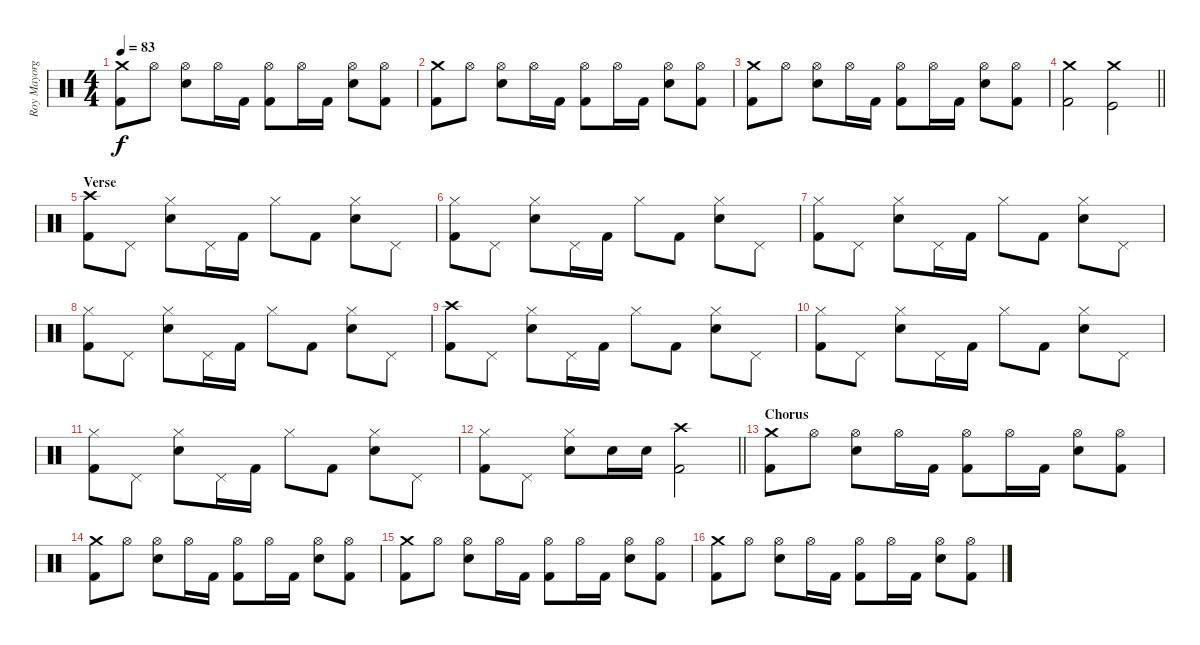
\track ("Roy Mayorga" "Roy Mayorg") {instrument percussion}
\staff {score}
\articulation defaults
\ts (4 4)
\tempo 83
\clef neutral
\ks c
("Crash medium (hit)" "Kick (hit) 2").8{dy f} "Hi-Hat (open)".8 ("Hi-Hat (open)" "Electric Snare (hit)").8 "Hi-Hat (open)".16 "Kick (hit) 2".16 ("Kick (hit) 2" "Hi-Hat (open)").8 "Hi-Hat (open)".16 "Kick (hit) 2".16 ("Electric Snare (hit)" "Hi-Hat (open)").8 ("Hi-Hat (open)" "Kick (hit) 2").8 |
("Crash medium (hit)" "Kick (hit) 2").8 "Hi-Hat (open)".8 ("Hi-Hat (open)" "Electric Snare (hit)").8 "Hi-Hat (open)".16 "Kick (hit) 2".16 ("Kick (hit) 2" "Hi-Hat (open)").8 "Hi-Hat (open)".16 "Kick (hit) 2".16 ("Electric Snare (hit)" "Hi-Hat (open)").8 ("Hi-Hat (open)" "Kick (hit) 2").8 |
("Crash medium (hit)" "Kick (hit) 2").8 "Hi-Hat (open)".8 ("Hi-Hat (open)" "Electric Snare (hit)").8 "Hi-Hat (open)".16 "Kick (hit) 2".16 ("Kick (hit) 2" "Hi-Hat (open)").8 "Hi-Hat (open)".16 "Kick (hit) 2".16 ("Electric Snare (hit)" "Hi-Hat (open)").8 ("Hi-Hat (open)" "Kick (hit) 2").8 |
\barLineRight lightlight
("Crash medium (hit)" "Kick (hit) 2").2 ("Crash medium (hit)" "Kick (hit)").2 |
\section ("" "Verse ")
("Crash high (hit)" "Kick (hit) 2").8 "Pedal Hi-Hat (hit)".8 ("Hi-Hat (closed)" "Electric Snare (hit)").8 "Pedal Hi-Hat (hit)".16 "Kick (hit) 2".16 "Hi-Hat (closed)".8 "Kick (hit) 2".8 ("Electric Snare (hit)" "Hi-Hat (closed)").8 "Pedal Hi-Hat (hit)".8 |
("Hi-Hat (closed)" "Kick (hit) 2").8 "Pedal Hi-Hat (hit)".8 ("Hi-Hat (closed)" "Electric Snare (hit)").8 "Pedal Hi-Hat (hit)".16 "Kick (hit) 2".16 "Hi-Hat (closed)".8 "Kick (hit) 2".8 ("Electric Snare (hit)" "Hi-Hat (closed)").8 "Pedal Hi-Hat (hit)".8 |
("Hi-Hat (closed)" "Kick (hit) 2").8 "Pedal Hi-Hat (hit)".8 ("Hi-Hat (closed)" "Electric Snare (hit)").8 "Pedal Hi-Hat (hit)".16 "Kick (hit) 2".16 "Hi-Hat (closed)".8 "Kick (hit) 2".8 ("Electric Snare (hit)" "Hi-Hat (closed)").8 "Pedal Hi-Hat (hit)".8 |
("Hi-Hat (closed)" "Kick (hit) 2").8 "Pedal Hi-Hat (hit)".8 ("Hi-Hat (closed)" "Electric Snare (hit)").8 "Pedal Hi-Hat (hit)".16 "Kick (hit) 2".16 "Hi-Hat (closed)".8 "Kick (hit) 2".8 ("Electric Snare (hit)" "Hi-Hat (closed)").8 "Pedal Hi-Hat (hit)".8 |
("Crash high (hit)" "Kick (hit) 2").8 "Pedal Hi-Hat (hit)".8 ("Hi-Hat (closed)" "Electric Snare (hit)").8 "Pedal Hi-Hat (hit)".16 "Kick (hit) 2".16 "Hi-Hat (closed)".8 "Kick (hit) 2".8 ("Electric Snare (hit)" "Hi-Hat (closed)").8 "Pedal Hi-Hat (hit)".8 |
("Hi-Hat (closed)" "Kick (hit) 2").8 "Pedal Hi-Hat (hit)".8 ("Hi-Hat (closed)" "Electric Snare (hit)").8 "Pedal Hi-Hat (hit)".16 "Kick (hit) 2".16 "Hi-Hat (closed)".8 "Kick (hit) 2".8 ("Electric Snare (hit)" "Hi-Hat (closed)").8 "Pedal Hi-Hat (hit)".8 |
("Hi-Hat (closed)" "Kick (hit) 2").8 "Pedal Hi-Hat (hit)".8 ("Hi-Hat (closed)" "Electric Snare (hit)").8 "Pedal Hi-Hat (hit)".16 "Kick (hit) 2".16 "Hi-Hat (closed)".8 "Kick (hit) 2".8 ("Electric Snare (hit)" "Hi-Hat (closed)").8 "Pedal Hi-Hat (hit)".8 |
\barLineRight lightlight
("Hi-Hat (closed)" "Kick (hit) 2").8 "Pedal Hi-Hat (hit)".8 ("Hi-Hat (closed)" "Electric Snare (hit)").8 "Electric Snare (hit)".16 "Electric Snare (hit)".16 ("Kick (hit) 2" "Crash high (hit)").2 |
\section ("" "Chorus")
("Crash medium (hit)" "Kick (hit) 2").8 "Hi-Hat (open)".8 ("Hi-Hat (open)" "Electric Snare (hit)").8 "Hi-Hat (open)".16 "Kick (hit) 2".16 ("Kick (hit) 2" "Hi-Hat (open)").8 "Hi-Hat (open)".16 "Kick (hit) 2".16 ("Electric Snare (hit)" "Hi-Hat (open)").8 ("Hi-Hat (open)" "Kick (hit) 2").8 |
("Crash medium (hit)" "Kick (hit) 2").8 "Hi-Hat (open)".8 ("Hi-Hat (open)" "Electric Snare (hit)").8 "Hi-Hat (open)".16 "Kick (hit) 2".16 ("Kick (hit) 2" "Hi-Hat (open)").8 "Hi-Hat (open)".16 "Kick (hit) 2".16 ("Electric Snare (hit)" "Hi-Hat (open)").8 ("Hi-Hat (open)" "Kick (hit) 2").8 |
("Crash medium (hit)" "Kick (hit) 2").8 "Hi-Hat (open)".8 ("Hi-Hat (open)" "Electric Snare (hit)").8 "Hi-Hat (open)".16 "Kick (hit) 2".16 ("Kick (hit) 2" "Hi-Hat (open)").8 "Hi-Hat (open)".16 "Kick (hit) 2".16 ("Electric Snare (hit)" "Hi-Hat (open)").8 ("Hi-Hat (open)" "Kick (hit) 2").8 |
("Crash medium (hit)" "Kick (hit) 2").8 "Hi-Hat (open)".8 ("Hi-Hat (open)" "Electric Snare (hit)").8 "Hi-Hat (open)".16 "Kick (hit) 2".16 ("Kick (hit) 2" "Hi-Hat (open)").8 "Hi-Hat (open)".16 "Kick (hit) 2".16 ("Electric Snare (hit)" "Hi-Hat (open)").8 ("Hi-Hat (open)" "Kick (hit) 2").8
